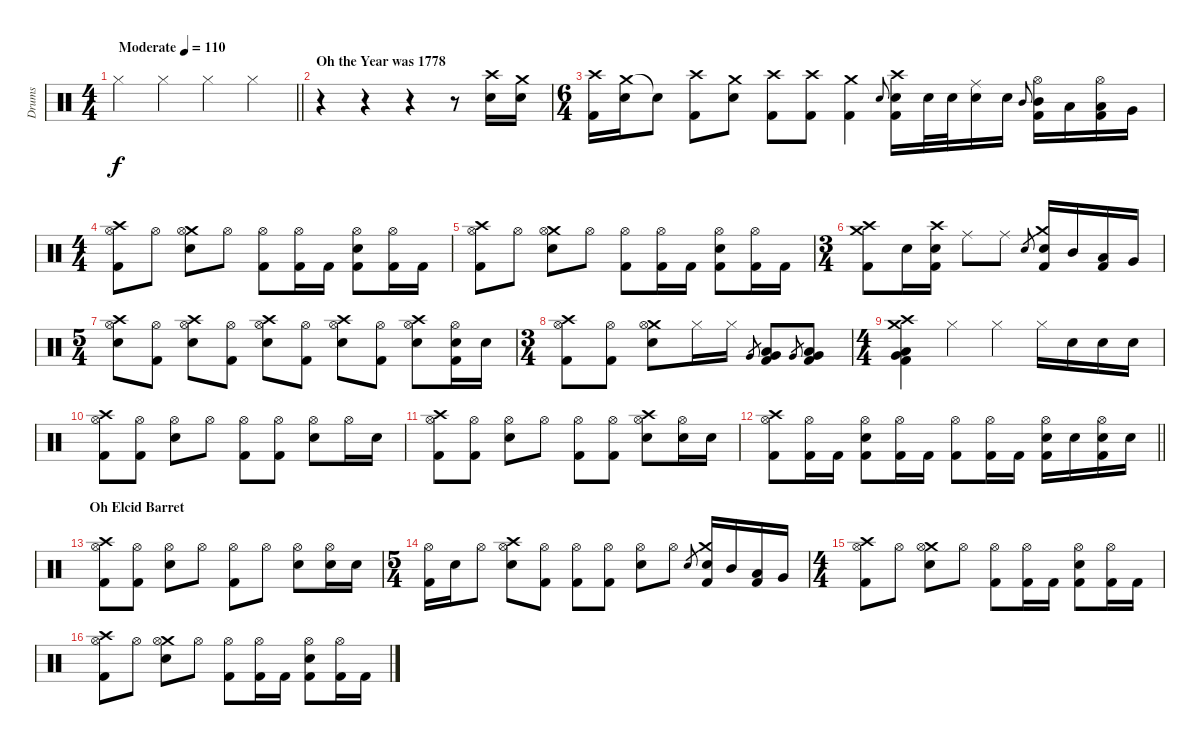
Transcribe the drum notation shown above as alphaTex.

\track ("Drums" "Drums") {instrument percussion}
\staff {score}
\articulation defaults
\ts (4 4)
\tempo (110 "Moderate")
\clef neutral
\barLineRight lightlight
\ks c "Hi-Hat (closed)".4{dy f} "Hi-Hat (closed)".4 "Hi-Hat (closed)".4 "Hi-Hat (closed)".4
|
\section ("" "Oh the Year was 1778")
r.4 r.4 r.4 r.8 ("Crash high (hit)" "Snare (hit) 2").16 ("Crash medium (hit)" "Snare (hit) 2").16 |
\ts (6 4)
("Crash high (hit)" "Kick (hit) 2").16 ("Crash medium (hit)" "Snare (hit) 2").16 "Snare (hit)"{t}.8 ("Crash high (hit)" "Kick (hit) 2").8 ("Crash medium (hit)" "Snare (hit) 2").8 ("Crash high (hit)" "Kick (hit) 2").8 ("Crash high (hit)" "Kick (hit) 2").8 ("Crash medium (hit)" "Kick (hit) 2").4 "Snare (hit) 2".8{gr onbeat} ("Crash high (hit)" "Snare (hit) 2" "Kick (hit) 2").16 "Snare (hit) 2".32 "Snare (hit) 2".32 ("Ride (middle)" "Snare (hit) 2").16 "Snare (hit) 2".16 "Mid Tom (hit)".8{gr onbeat} ("Hi-Hat (open)" "Mid Tom (hit)" "Kick (hit) 2").16 "Low Tom (hit)".16 ("Hi-Hat (open)" "Low Tom (hit)" "Kick (hit) 2").16 "Very Low Tom (hit)".16 |
\ts (4 4)
("Crash high (hit)" "Hi-Hat (open)" "Kick (hit) 2").8 "Hi-Hat (open)".8 ("Crash medium (hit)" "Hi-Hat (open)" "Snare (hit) 2").8 "Hi-Hat (open)".8 ("Hi-Hat (open)" "Kick (hit) 2").8 ("Hi-Hat (open)" "Kick (hit) 2").16 "Kick (hit) 2".16 ("Hi-Hat (open)" "Snare (hit) 2" "Kick (hit) 2").8 ("Hi-Hat (open)" "Kick (hit) 2").16 "Kick (hit) 2".16 |
("Crash high (hit)" "Hi-Hat (open)" "Kick (hit) 2").8 "Hi-Hat (open)".8 ("Crash medium (hit)" "Hi-Hat (open)" "Snare (hit) 2").8 "Hi-Hat (open)".8 ("Hi-Hat (open)" "Kick (hit) 2").8 ("Hi-Hat (open)" "Kick (hit) 2").16 "Kick (hit) 2".16 ("Hi-Hat (open)" "Snare (hit) 2" "Kick (hit) 2").8 ("Hi-Hat (open)" "Kick (hit) 2").16 "Kick (hit) 2".16 |
\ts (3 4)
("Crash medium (hit)" "Crash high (hit)" "Kick (hit) 2").8 "Snare (hit) 2".16 ("Crash high (hit)" "Snare (hit) 2" "Kick (hit) 2").16 "Ride (middle)".8 "Ride (middle)".8 "Snare (hit) 2".8{gr} ("Crash medium (hit)" "Snare (hit) 2" "Kick (hit) 2").16 "Mid Tom (hit)".16 ("Low Tom (hit)" "Kick (hit) 2").16 "Very Low Tom (hit)".16 |
\ts (5 4)
("Crash high (hit)" "Hi-Hat (open)" "Snare (hit) 2").8 ("Hi-Hat (open)" "Kick (hit) 2").8 ("Crash high (hit)" "Hi-Hat (open)" "Snare (hit) 2").8 ("Hi-Hat (open)" "Kick (hit) 2").8 ("Crash high (hit)" "Hi-Hat (open)" "Snare (hit) 2").8 ("Hi-Hat (open)" "Kick (hit) 2").8 ("Crash high (hit)" "Hi-Hat (open)" "Snare (hit) 2").8 ("Hi-Hat (open)" "Kick (hit) 2").8 ("Crash high (hit)" "Hi-Hat (open)" "Snare (hit) 2").8 ("Hi-Hat (open)" "Snare (hit) 2" "Kick (hit) 2").16 "Snare (hit) 2".16 |
\ts (3 4)
("Crash high (hit)" "Hi-Hat (open)" "Kick (hit) 2").8 ("Hi-Hat (open)" "Kick (hit) 2").8 ("Crash medium (hit)" "Hi-Hat (open)" "Snare (hit) 2").8 "Hi-Hat (closed)".16 "Hi-Hat (closed)".16 "Very Low Tom (hit)".8{gr} ("Low Tom (hit)" "Very Low Tom (hit)" "Kick (hit) 2").8 "Very Low Tom (hit)".8{gr} ("Low Tom (hit)" "Very Low Tom (hit)" "Kick (hit) 2").8 |
\ts (4 4)
("Crash high (hit)" "Crash medium (hit)" "Low Tom (hit)" "Very Low Tom (hit)" "Kick (hit) 2").4 "Hi-Hat (closed)".4 "Hi-Hat (closed)".4 "Hi-Hat (closed)".16 "Snare (hit) 2".16 "Snare (hit) 2".16 "Snare (hit) 2".16 |
("Crash high (hit)" "Hi-Hat (open)" "Kick (hit) 2").8 ("Hi-Hat (open)" "Kick (hit) 2").8 ("Hi-Hat (open)" "Snare (hit) 2").8 "Hi-Hat (open)".8 ("Hi-Hat (open)" "Kick (hit) 2").8 ("Hi-Hat (open)" "Kick (hit) 2").8 ("Hi-Hat (open)" "Snare (hit) 2").8 "Hi-Hat (open)".16 "Snare (hit) 2".16 |
("Crash high (hit)" "Hi-Hat (open)" "Kick (hit) 2").8 ("Hi-Hat (open)" "Kick (hit) 2").8 ("Hi-Hat (open)" "Snare (hit) 2").8 "Hi-Hat (open)".8 ("Hi-Hat (open)" "Kick (hit) 2").8 ("Hi-Hat (open)" "Kick (hit) 2").8 ("Crash high (hit)" "Hi-Hat (open)" "Snare (hit) 2").8 ("Hi-Hat (open)" "Snare (hit) 2").16 "Snare (hit) 2".16 |
\barLineRight lightlight
("Crash high (hit)" "Hi-Hat (open)" "Kick (hit) 2").8 ("Hi-Hat (open)" "Kick (hit) 2").16 "Kick (hit) 2".16 ("Hi-Hat (open)" "Snare (hit) 2" "Kick (hit) 2").8 ("Hi-Hat (open)" "Kick (hit) 2").16 "Kick (hit) 2".16 ("Hi-Hat (open)" "Kick (hit) 2").8 ("Hi-Hat (open)" "Kick (hit) 2").16 "Kick (hit) 2".16 ("Hi-Hat (open)" "Snare (hit) 2" "Kick (hit) 2").16 "Snare (hit) 2".16 ("Hi-Hat (open)" "Snare (hit) 2" "Kick (hit) 2").16 "Snare (hit) 2".16 |
\section ("" "Oh Elcid Barret")
("Crash high (hit)" "Hi-Hat (open)" "Kick (hit) 2").8 ("Hi-Hat (open)" "Kick (hit) 2").8 ("Hi-Hat (open)" "Snare (hit) 2").8 "Hi-Hat (open)".8 ("Hi-Hat (open)" "Kick (hit) 2").8 "Hi-Hat (open)".8 ("Hi-Hat (open)" "Snare (hit) 2").8 ("Hi-Hat (open)" "Snare (hit) 2").16 "Snare (hit) 2".16 |
\ts (5 4)
("Hi-Hat (open)" "Kick (hit) 2").16 "Snare (hit) 2".16 "Hi-Hat (open)".8 ("Crash high (hit)" "Hi-Hat (open)" "Snare (hit) 2").8 ("Hi-Hat (open)" "Kick (hit) 2").8 ("Hi-Hat (open)" "Kick (hit) 2").8 ("Hi-Hat (open)" "Kick (hit) 2").8 ("Hi-Hat (open)" "Snare (hit) 2").8 "Hi-Hat (open)".8 "Snare (hit) 2".8{gr} ("Crash medium (hit)" "Snare (hit) 2" "Kick (hit) 2").16 "Mid Tom (hit)".16 ("Low Tom (hit)" "Kick (hit) 2").16 "Very Low Tom (hit)".16 |
\ts (4 4)
("Crash high (hit)" "Hi-Hat (open)" "Kick (hit) 2").8 "Hi-Hat (open)".8 ("Crash medium (hit)" "Hi-Hat (open)" "Snare (hit) 2").8 "Hi-Hat (open)".8 ("Hi-Hat (open)" "Kick (hit) 2").8 ("Hi-Hat (open)" "Kick (hit) 2").16 "Kick (hit) 2".16 ("Hi-Hat (open)" "Snare (hit) 2" "Kick (hit) 2").8 ("Hi-Hat (open)" "Kick (hit) 2").16 "Kick (hit) 2".16 |
("Crash high (hit)" "Hi-Hat (open)" "Kick (hit) 2").8 "Hi-Hat (open)".8 ("Crash medium (hit)" "Hi-Hat (open)" "Snare (hit) 2").8 "Hi-Hat (open)".8 ("Hi-Hat (open)" "Kick (hit) 2").8 ("Hi-Hat (open)" "Kick (hit) 2").16 "Kick (hit) 2".16 ("Hi-Hat (open)" "Snare (hit) 2" "Kick (hit) 2").8 ("Hi-Hat (open)" "Kick (hit) 2").16 "Kick (hit) 2".16
